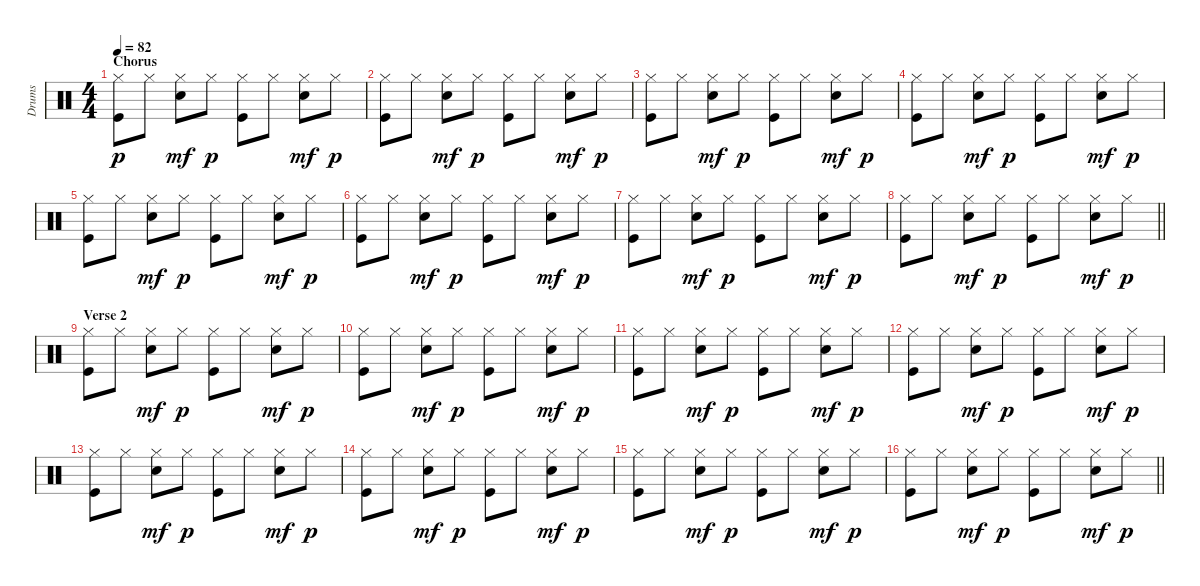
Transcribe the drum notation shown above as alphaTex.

\track ("Drums" "Drums") {instrument percussion}
\staff {score}
\articulation defaults
\ts (4 4)
\section ("" "Chorus")
\tempo 82
\clef neutral
\ks c
("Hi-Hat (closed)" "Kick (hit)").8{dy p} "Hi-Hat (closed)".8 ("Hi-Hat (closed)" "Snare (hit) 2").8{dy mf} "Hi-Hat (closed)".8{dy p} ("Hi-Hat (closed)" "Kick (hit)").8 "Hi-Hat (closed)".8 ("Hi-Hat (closed)" "Snare (hit) 2").8{dy mf} "Hi-Hat (closed)".8{dy p} |
("Hi-Hat (closed)" "Kick (hit)").8 "Hi-Hat (closed)".8 ("Hi-Hat (closed)" "Snare (hit) 2").8{dy mf} "Hi-Hat (closed)".8{dy p} ("Hi-Hat (closed)" "Kick (hit)").8 "Hi-Hat (closed)".8 ("Hi-Hat (closed)" "Snare (hit) 2").8{dy mf} "Hi-Hat (closed)".8{dy p} |
("Hi-Hat (closed)" "Kick (hit)").8 "Hi-Hat (closed)".8 ("Hi-Hat (closed)" "Snare (hit) 2").8{dy mf} "Hi-Hat (closed)".8{dy p} ("Hi-Hat (closed)" "Kick (hit)").8 "Hi-Hat (closed)".8 ("Hi-Hat (closed)" "Snare (hit) 2").8{dy mf} "Hi-Hat (closed)".8{dy p} |
("Hi-Hat (closed)" "Kick (hit)").8 "Hi-Hat (closed)".8 ("Hi-Hat (closed)" "Snare (hit) 2").8{dy mf} "Hi-Hat (closed)".8{dy p} ("Hi-Hat (closed)" "Kick (hit)").8 "Hi-Hat (closed)".8 ("Hi-Hat (closed)" "Snare (hit) 2").8{dy mf} "Hi-Hat (closed)".8{dy p} |
("Hi-Hat (closed)" "Kick (hit)").8 "Hi-Hat (closed)".8 ("Hi-Hat (closed)" "Snare (hit) 2").8{dy mf} "Hi-Hat (closed)".8{dy p} ("Hi-Hat (closed)" "Kick (hit)").8 "Hi-Hat (closed)".8 ("Hi-Hat (closed)" "Snare (hit) 2").8{dy mf} "Hi-Hat (closed)".8{dy p} |
("Hi-Hat (closed)" "Kick (hit)").8 "Hi-Hat (closed)".8 ("Hi-Hat (closed)" "Snare (hit) 2").8{dy mf} "Hi-Hat (closed)".8{dy p} ("Hi-Hat (closed)" "Kick (hit)").8 "Hi-Hat (closed)".8 ("Hi-Hat (closed)" "Snare (hit) 2").8{dy mf} "Hi-Hat (closed)".8{dy p} |
("Hi-Hat (closed)" "Kick (hit)").8 "Hi-Hat (closed)".8 ("Hi-Hat (closed)" "Snare (hit) 2").8{dy mf} "Hi-Hat (closed)".8{dy p} ("Hi-Hat (closed)" "Kick (hit)").8 "Hi-Hat (closed)".8 ("Hi-Hat (closed)" "Snare (hit) 2").8{dy mf} "Hi-Hat (closed)".8{dy p} |
\barLineRight lightlight
("Hi-Hat (closed)" "Kick (hit)").8 "Hi-Hat (closed)".8 ("Hi-Hat (closed)" "Snare (hit) 2").8{dy mf} "Hi-Hat (closed)".8{dy p} ("Hi-Hat (closed)" "Kick (hit)").8 "Hi-Hat (closed)".8 ("Hi-Hat (closed)" "Snare (hit) 2").8{dy mf} "Hi-Hat (closed)".8{dy p} |
\section ("" "Verse 2")
("Hi-Hat (closed)" "Kick (hit)").8 "Hi-Hat (closed)".8 ("Hi-Hat (closed)" "Snare (hit) 2").8{dy mf} "Hi-Hat (closed)".8{dy p} ("Hi-Hat (closed)" "Kick (hit)").8 "Hi-Hat (closed)".8 ("Hi-Hat (closed)" "Snare (hit) 2").8{dy mf} "Hi-Hat (closed)".8{dy p} |
("Hi-Hat (closed)" "Kick (hit)").8 "Hi-Hat (closed)".8 ("Hi-Hat (closed)" "Snare (hit) 2").8{dy mf} "Hi-Hat (closed)".8{dy p} ("Hi-Hat (closed)" "Kick (hit)").8 "Hi-Hat (closed)".8 ("Hi-Hat (closed)" "Snare (hit) 2").8{dy mf} "Hi-Hat (closed)".8{dy p} |
("Hi-Hat (closed)" "Kick (hit)").8 "Hi-Hat (closed)".8 ("Hi-Hat (closed)" "Snare (hit) 2").8{dy mf} "Hi-Hat (closed)".8{dy p} ("Hi-Hat (closed)" "Kick (hit)").8 "Hi-Hat (closed)".8 ("Hi-Hat (closed)" "Snare (hit) 2").8{dy mf} "Hi-Hat (closed)".8{dy p} |
("Hi-Hat (closed)" "Kick (hit)").8 "Hi-Hat (closed)".8 ("Hi-Hat (closed)" "Snare (hit) 2").8{dy mf} "Hi-Hat (closed)".8{dy p} ("Hi-Hat (closed)" "Kick (hit)").8 "Hi-Hat (closed)".8 ("Hi-Hat (closed)" "Snare (hit) 2").8{dy mf} "Hi-Hat (closed)".8{dy p} |
("Hi-Hat (closed)" "Kick (hit)").8 "Hi-Hat (closed)".8 ("Hi-Hat (closed)" "Snare (hit) 2").8{dy mf} "Hi-Hat (closed)".8{dy p} ("Hi-Hat (closed)" "Kick (hit)").8 "Hi-Hat (closed)".8 ("Hi-Hat (closed)" "Snare (hit) 2").8{dy mf} "Hi-Hat (closed)".8{dy p} |
("Hi-Hat (closed)" "Kick (hit)").8 "Hi-Hat (closed)".8 ("Hi-Hat (closed)" "Snare (hit) 2").8{dy mf} "Hi-Hat (closed)".8{dy p} ("Hi-Hat (closed)" "Kick (hit)").8 "Hi-Hat (closed)".8 ("Hi-Hat (closed)" "Snare (hit) 2").8{dy mf} "Hi-Hat (closed)".8{dy p} |
("Hi-Hat (closed)" "Kick (hit)").8 "Hi-Hat (closed)".8 ("Hi-Hat (closed)" "Snare (hit) 2").8{dy mf} "Hi-Hat (closed)".8{dy p} ("Hi-Hat (closed)" "Kick (hit)").8 "Hi-Hat (closed)".8 ("Hi-Hat (closed)" "Snare (hit) 2").8{dy mf} "Hi-Hat (closed)".8{dy p} |
\barLineRight lightlight
("Hi-Hat (closed)" "Kick (hit)").8 "Hi-Hat (closed)".8 ("Hi-Hat (closed)" "Snare (hit) 2").8{dy mf} "Hi-Hat (closed)".8{dy p} ("Hi-Hat (closed)" "Kick (hit)").8 "Hi-Hat (closed)".8 ("Hi-Hat (closed)" "Snare (hit) 2").8{dy mf} "Hi-Hat (closed)".8{dy p}
